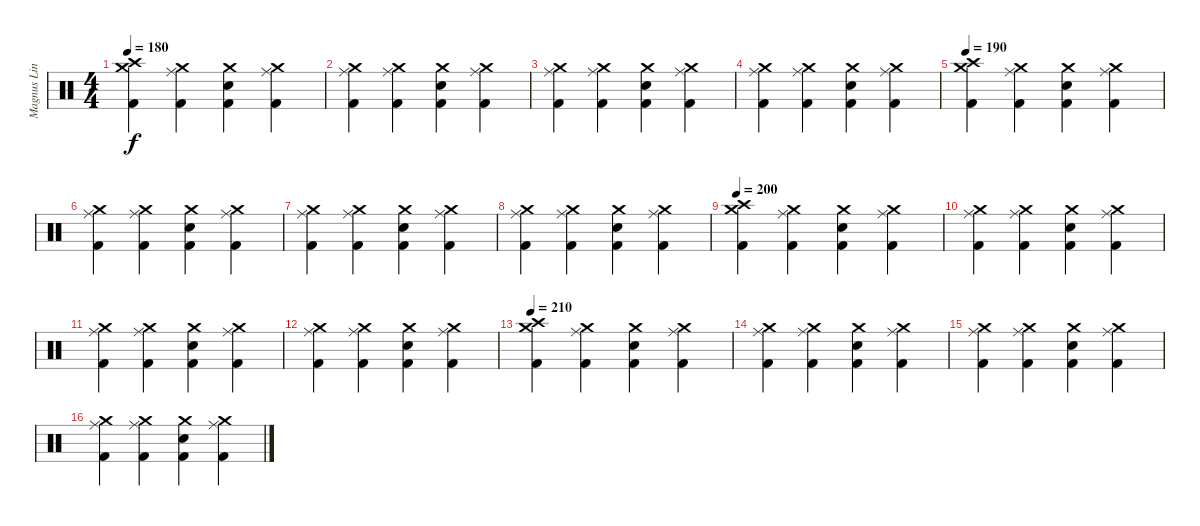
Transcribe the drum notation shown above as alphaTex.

\track ("Magnus Lindberg" "Magnus Lin") {instrument percussion}
\staff {score}
\articulation defaults
\ts (4 4)
\tempo 180
\clef neutral
\ks c
("Crash medium (hit)" "Crash high (hit)" "Kick (hit) 2").4{dy f} ("Crash medium (hit)" "Ride (middle)" "Kick (hit) 2").4 ("Crash medium (hit)" "Snare (hit) 2" "Kick (hit) 2").4 ("Crash medium (hit)" "Ride (middle)" "Kick (hit) 2").4 |
("Crash medium (hit)" "Ride (middle)" "Kick (hit) 2").4 ("Crash medium (hit)" "Ride (middle)" "Kick (hit) 2").4 ("Crash medium (hit)" "Snare (hit) 2" "Kick (hit) 2").4 ("Crash medium (hit)" "Ride (middle)" "Kick (hit) 2").4 |
("Crash medium (hit)" "Ride (middle)" "Kick (hit) 2").4 ("Crash medium (hit)" "Ride (middle)" "Kick (hit) 2").4 ("Crash medium (hit)" "Snare (hit) 2" "Kick (hit) 2").4 ("Crash medium (hit)" "Ride (middle)" "Kick (hit) 2").4 |
("Crash medium (hit)" "Ride (middle)" "Kick (hit) 2").4 ("Crash medium (hit)" "Ride (middle)" "Kick (hit) 2").4 ("Crash medium (hit)" "Snare (hit) 2" "Kick (hit) 2").4 ("Crash medium (hit)" "Ride (middle)" "Kick (hit) 2").4 |
\tempo 190
("Crash medium (hit)" "Crash high (hit)" "Kick (hit) 2").4 ("Crash medium (hit)" "Ride (middle)" "Kick (hit) 2").4 ("Crash medium (hit)" "Snare (hit) 2" "Kick (hit) 2").4 ("Crash medium (hit)" "Ride (middle)" "Kick (hit) 2").4 |
("Crash medium (hit)" "Ride (middle)" "Kick (hit) 2").4 ("Crash medium (hit)" "Ride (middle)" "Kick (hit) 2").4 ("Crash medium (hit)" "Snare (hit) 2" "Kick (hit) 2").4 ("Crash medium (hit)" "Ride (middle)" "Kick (hit) 2").4 |
("Crash medium (hit)" "Ride (middle)" "Kick (hit) 2").4 ("Crash medium (hit)" "Ride (middle)" "Kick (hit) 2").4 ("Crash medium (hit)" "Snare (hit) 2" "Kick (hit) 2").4 ("Crash medium (hit)" "Ride (middle)" "Kick (hit) 2").4 |
("Crash medium (hit)" "Ride (middle)" "Kick (hit) 2").4 ("Crash medium (hit)" "Ride (middle)" "Kick (hit) 2").4 ("Crash medium (hit)" "Snare (hit) 2" "Kick (hit) 2").4 ("Crash medium (hit)" "Ride (middle)" "Kick (hit) 2").4 |
\tempo 200
("Crash medium (hit)" "Crash high (hit)" "Kick (hit) 2").4 ("Crash medium (hit)" "Ride (middle)" "Kick (hit) 2").4 ("Crash medium (hit)" "Snare (hit) 2" "Kick (hit) 2").4 ("Crash medium (hit)" "Ride (middle)" "Kick (hit) 2").4 |
("Crash medium (hit)" "Ride (middle)" "Kick (hit) 2").4 ("Crash medium (hit)" "Ride (middle)" "Kick (hit) 2").4 ("Crash medium (hit)" "Snare (hit) 2" "Kick (hit) 2").4 ("Crash medium (hit)" "Ride (middle)" "Kick (hit) 2").4 |
("Crash medium (hit)" "Ride (middle)" "Kick (hit) 2").4 ("Crash medium (hit)" "Ride (middle)" "Kick (hit) 2").4 ("Crash medium (hit)" "Snare (hit) 2" "Kick (hit) 2").4 ("Crash medium (hit)" "Ride (middle)" "Kick (hit) 2").4 |
("Crash medium (hit)" "Ride (middle)" "Kick (hit) 2").4 ("Crash medium (hit)" "Ride (middle)" "Kick (hit) 2").4 ("Crash medium (hit)" "Snare (hit) 2" "Kick (hit) 2").4 ("Crash medium (hit)" "Ride (middle)" "Kick (hit) 2").4 |
\tempo 210
("Crash medium (hit)" "Crash high (hit)" "Kick (hit) 2").4 ("Crash medium (hit)" "Ride (middle)" "Kick (hit) 2").4 ("Crash medium (hit)" "Snare (hit) 2" "Kick (hit) 2").4 ("Crash medium (hit)" "Ride (middle)" "Kick (hit) 2").4 |
("Crash medium (hit)" "Ride (middle)" "Kick (hit) 2").4 ("Crash medium (hit)" "Ride (middle)" "Kick (hit) 2").4 ("Crash medium (hit)" "Snare (hit) 2" "Kick (hit) 2").4 ("Crash medium (hit)" "Ride (middle)" "Kick (hit) 2").4 |
("Crash medium (hit)" "Ride (middle)" "Kick (hit) 2").4 ("Crash medium (hit)" "Ride (middle)" "Kick (hit) 2").4 ("Crash medium (hit)" "Snare (hit) 2" "Kick (hit) 2").4 ("Crash medium (hit)" "Ride (middle)" "Kick (hit) 2").4 |
("Crash medium (hit)" "Ride (middle)" "Kick (hit) 2").4 ("Crash medium (hit)" "Ride (middle)" "Kick (hit) 2").4 ("Crash medium (hit)" "Snare (hit) 2" "Kick (hit) 2").4 ("Crash medium (hit)" "Ride (middle)" "Kick (hit) 2").4
